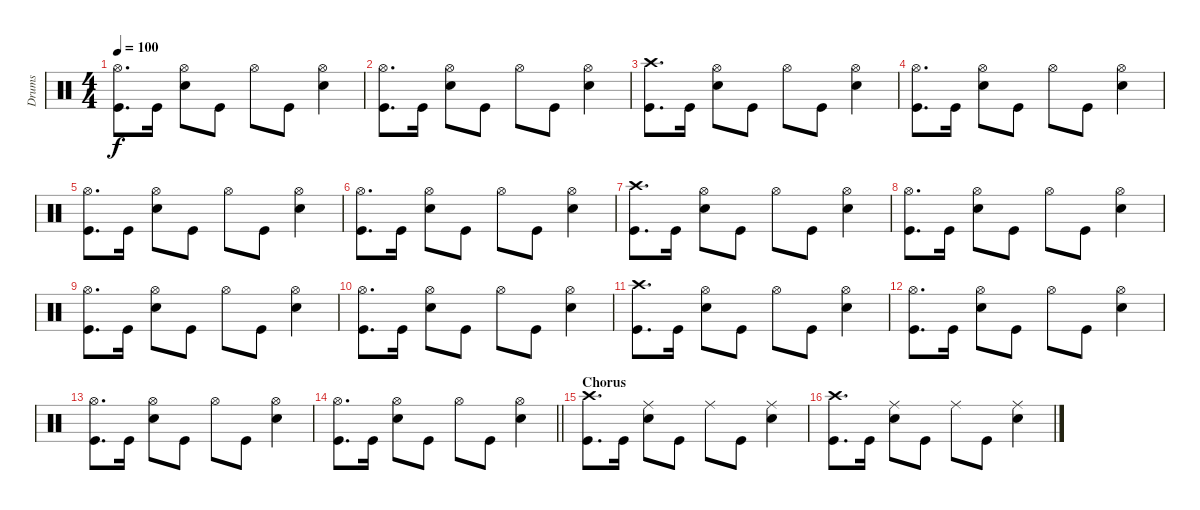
\track ("Drums" "Drums") {instrument percussion}
\staff {score}
\articulation defaults
\ts (4 4)
\tempo 100
\clef neutral
\ks c
("Hi-Hat (open)" "Kick (hit)").8{d dy f} "Kick (hit)".16 ("Hi-Hat (open)" "Snare (hit) 2").8 "Kick (hit)".8 "Hi-Hat (open)".8 "Kick (hit)".8 ("Hi-Hat (open)" "Snare (hit) 2").4 |
("Hi-Hat (open)" "Kick (hit)").8{d} "Kick (hit)".16 ("Hi-Hat (open)" "Snare (hit) 2").8 "Kick (hit)".8 "Hi-Hat (open)".8 "Kick (hit)".8 ("Hi-Hat (open)" "Snare (hit) 2").4 |
("Crash high (hit)" "Kick (hit)").8{d} "Kick (hit)".16 ("Hi-Hat (open)" "Snare (hit) 2").8 "Kick (hit)".8 "Hi-Hat (open)".8 "Kick (hit)".8 ("Hi-Hat (open)" "Snare (hit) 2").4 |
("Hi-Hat (open)" "Kick (hit)").8{d} "Kick (hit)".16 ("Hi-Hat (open)" "Snare (hit) 2").8 "Kick (hit)".8 "Hi-Hat (open)".8 "Kick (hit)".8 ("Hi-Hat (open)" "Snare (hit) 2").4 |
("Hi-Hat (open)" "Kick (hit)").8{d} "Kick (hit)".16 ("Hi-Hat (open)" "Snare (hit) 2").8 "Kick (hit)".8 "Hi-Hat (open)".8 "Kick (hit)".8 ("Hi-Hat (open)" "Snare (hit) 2").4 |
("Hi-Hat (open)" "Kick (hit)").8{d} "Kick (hit)".16 ("Hi-Hat (open)" "Snare (hit) 2").8 "Kick (hit)".8 "Hi-Hat (open)".8 "Kick (hit)".8 ("Hi-Hat (open)" "Snare (hit) 2").4 |
("Crash high (hit)" "Kick (hit)").8{d} "Kick (hit)".16 ("Hi-Hat (open)" "Snare (hit) 2").8 "Kick (hit)".8 "Hi-Hat (open)".8 "Kick (hit)".8 ("Hi-Hat (open)" "Snare (hit) 2").4 |
("Hi-Hat (open)" "Kick (hit)").8{d} "Kick (hit)".16 ("Hi-Hat (open)" "Snare (hit) 2").8 "Kick (hit)".8 "Hi-Hat (open)".8 "Kick (hit)".8 ("Hi-Hat (open)" "Snare (hit) 2").4 |
("Hi-Hat (open)" "Kick (hit)").8{d} "Kick (hit)".16 ("Hi-Hat (open)" "Snare (hit) 2").8 "Kick (hit)".8 "Hi-Hat (open)".8 "Kick (hit)".8 ("Hi-Hat (open)" "Snare (hit) 2").4 |
("Hi-Hat (open)" "Kick (hit)").8{d} "Kick (hit)".16 ("Hi-Hat (open)" "Snare (hit) 2").8 "Kick (hit)".8 "Hi-Hat (open)".8 "Kick (hit)".8 ("Hi-Hat (open)" "Snare (hit) 2").4 |
("Crash high (hit)" "Kick (hit)").8{d} "Kick (hit)".16 ("Hi-Hat (open)" "Snare (hit) 2").8 "Kick (hit)".8 "Hi-Hat (open)".8 "Kick (hit)".8 ("Hi-Hat (open)" "Snare (hit) 2").4 |
("Hi-Hat (open)" "Kick (hit)").8{d} "Kick (hit)".16 ("Hi-Hat (open)" "Snare (hit) 2").8 "Kick (hit)".8 "Hi-Hat (open)".8 "Kick (hit)".8 ("Hi-Hat (open)" "Snare (hit) 2").4 |
("Hi-Hat (open)" "Kick (hit)").8{d} "Kick (hit)".16 ("Hi-Hat (open)" "Snare (hit) 2").8 "Kick (hit)".8 "Hi-Hat (open)".8 "Kick (hit)".8 ("Hi-Hat (open)" "Snare (hit) 2").4 |
\barLineRight lightlight
("Hi-Hat (open)" "Kick (hit)").8{d} "Kick (hit)".16 ("Hi-Hat (open)" "Snare (hit) 2").8 "Kick (hit)".8 "Hi-Hat (open)".8 "Kick (hit)".8 ("Hi-Hat (open)" "Snare (hit) 2").4 |
\section ("" "Chorus")
("Crash high (hit)" "Kick (hit)").8{d} "Kick (hit)".16 ("Ride (middle)" "Snare (hit) 2").8 "Kick (hit)".8 "Ride (middle)".8 "Kick (hit)".8 ("Ride (middle)" "Snare (hit) 2").4 |
("Crash high (hit)" "Kick (hit)").8{d} "Kick (hit)".16 ("Ride (middle)" "Snare (hit) 2").8 "Kick (hit)".8 "Ride (middle)".8 "Kick (hit)".8 ("Ride (middle)" "Snare (hit) 2").4
